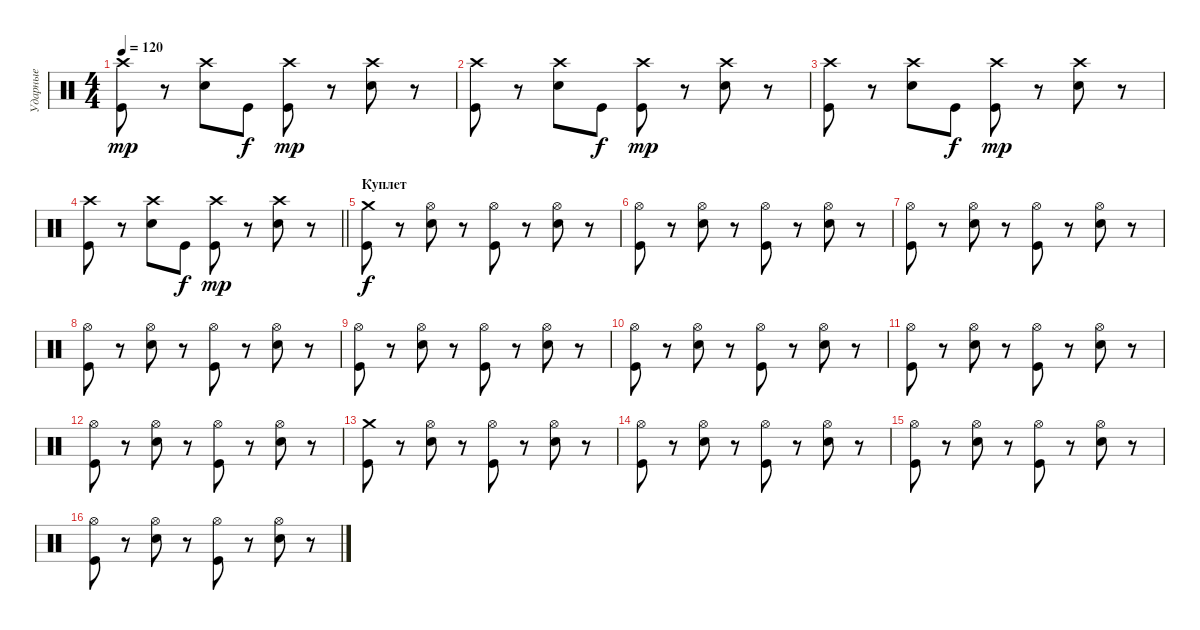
\track ("Ударные" "Ударные") {instrument percussion}
\staff {score}
\articulation defaults
\ts (4 4)
\tempo 120
\clef neutral
\ks c
("Crash high (hit)" "Kick (hit)").8{dy mp} r.8 ("Crash high (hit)" "Electric Snare (hit)").8 "Kick (hit)".8{dy f} ("Crash high (hit)" "Kick (hit)").8{dy mp} r.8 ("Crash high (hit)" "Electric Snare (hit)").8 r.8 |
("Crash high (hit)" "Kick (hit)").8 r.8 ("Crash high (hit)" "Electric Snare (hit)").8 "Kick (hit)".8{dy f} ("Crash high (hit)" "Kick (hit)").8{dy mp} r.8 ("Crash high (hit)" "Electric Snare (hit)").8 r.8 |
("Crash high (hit)" "Kick (hit)").8 r.8 ("Crash high (hit)" "Electric Snare (hit)").8 "Kick (hit)".8{dy f} ("Crash high (hit)" "Kick (hit)").8{dy mp} r.8 ("Crash high (hit)" "Electric Snare (hit)").8 r.8 |
\barLineRight lightlight
("Crash high (hit)" "Kick (hit)").8 r.8 ("Crash high (hit)" "Electric Snare (hit)").8 "Kick (hit)".8{dy f} ("Crash high (hit)" "Kick (hit)").8{dy mp} r.8 ("Crash high (hit)" "Electric Snare (hit)").8 r.8 |
\section ("" "Куплет")
("Crash medium (hit)" "Kick (hit)").8{dy f} r.8 ("Hi-Hat (open)" "Electric Snare (hit)").8 r.8 ("Hi-Hat (open)" "Kick (hit)").8 r.8 ("Hi-Hat (open)" "Electric Snare (hit)").8 r.8 |
("Hi-Hat (open)" "Kick (hit)").8 r.8 ("Hi-Hat (open)" "Electric Snare (hit)").8 r.8 ("Hi-Hat (open)" "Kick (hit)").8 r.8 ("Hi-Hat (open)" "Electric Snare (hit)").8 r.8 |
("Hi-Hat (open)" "Kick (hit)").8 r.8 ("Hi-Hat (open)" "Electric Snare (hit)").8 r.8 ("Hi-Hat (open)" "Kick (hit)").8 r.8 ("Hi-Hat (open)" "Electric Snare (hit)").8 r.8 |
("Hi-Hat (open)" "Kick (hit)").8 r.8 ("Hi-Hat (open)" "Electric Snare (hit)").8 r.8 ("Hi-Hat (open)" "Kick (hit)").8 r.8 ("Hi-Hat (open)" "Electric Snare (hit)").8 r.8 |
("Hi-Hat (open)" "Kick (hit)").8 r.8 ("Hi-Hat (open)" "Electric Snare (hit)").8 r.8 ("Hi-Hat (open)" "Kick (hit)").8 r.8 ("Hi-Hat (open)" "Electric Snare (hit)").8 r.8 |
("Hi-Hat (open)" "Kick (hit)").8 r.8 ("Hi-Hat (open)" "Electric Snare (hit)").8 r.8 ("Hi-Hat (open)" "Kick (hit)").8 r.8 ("Hi-Hat (open)" "Electric Snare (hit)").8 r.8 |
("Hi-Hat (open)" "Kick (hit)").8 r.8 ("Hi-Hat (open)" "Electric Snare (hit)").8 r.8 ("Hi-Hat (open)" "Kick (hit)").8 r.8 ("Hi-Hat (open)" "Electric Snare (hit)").8 r.8 |
("Hi-Hat (open)" "Kick (hit)").8 r.8 ("Hi-Hat (open)" "Electric Snare (hit)").8 r.8 ("Hi-Hat (open)" "Kick (hit)").8 r.8 ("Hi-Hat (open)" "Electric Snare (hit)").8 r.8 |
("Crash medium (hit)" "Kick (hit)").8 r.8 ("Hi-Hat (open)" "Electric Snare (hit)").8 r.8 ("Hi-Hat (open)" "Kick (hit)").8 r.8 ("Hi-Hat (open)" "Electric Snare (hit)").8 r.8 |
("Hi-Hat (open)" "Kick (hit)").8 r.8 ("Hi-Hat (open)" "Electric Snare (hit)").8 r.8 ("Hi-Hat (open)" "Kick (hit)").8 r.8 ("Hi-Hat (open)" "Electric Snare (hit)").8 r.8 |
("Hi-Hat (open)" "Kick (hit)").8 r.8 ("Hi-Hat (open)" "Electric Snare (hit)").8 r.8 ("Hi-Hat (open)" "Kick (hit)").8 r.8 ("Hi-Hat (open)" "Electric Snare (hit)").8 r.8 |
("Hi-Hat (open)" "Kick (hit)").8 r.8 ("Hi-Hat (open)" "Electric Snare (hit)").8 r.8 ("Hi-Hat (open)" "Kick (hit)").8 r.8 ("Hi-Hat (open)" "Electric Snare (hit)").8 r.8
